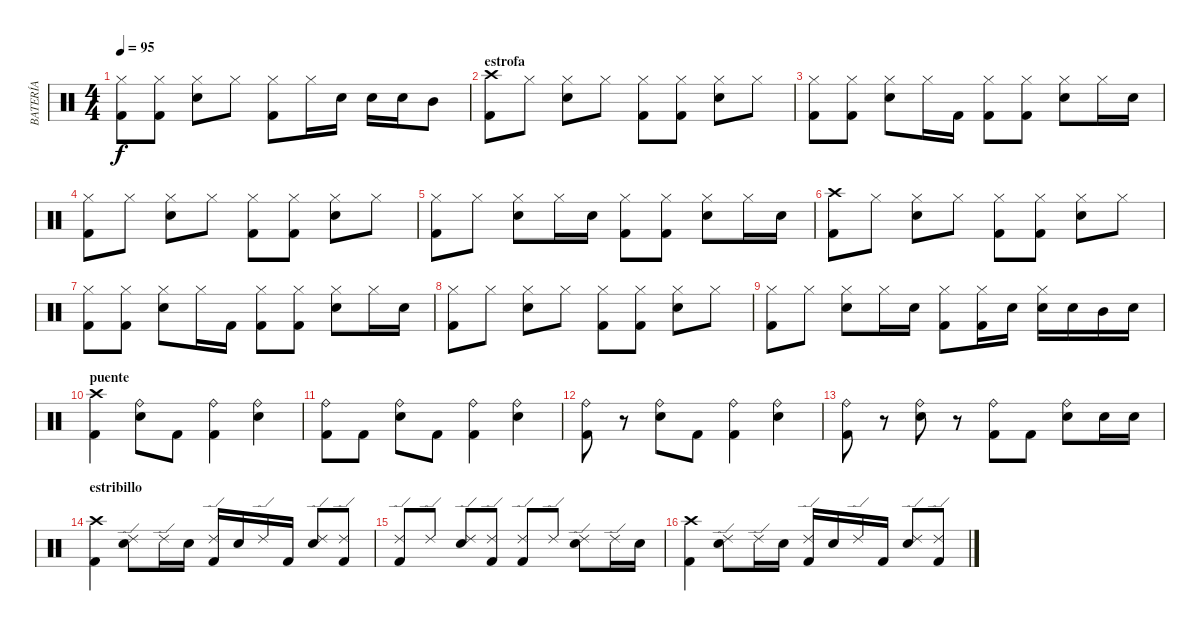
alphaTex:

\track ("BATERÍA" "BATERÍA") {instrument percussion}
\staff {score}
\articulation defaults
\ts (4 4)
\tempo 95
\clef neutral
\ks c
("Hi-Hat (closed)" "Kick (hit) 2").8{dy f} ("Hi-Hat (closed)" "Kick (hit) 2").8 ("Hi-Hat (closed)" "Electric Snare (hit)").8 "Hi-Hat (closed)".8 ("Hi-Hat (closed)" "Kick (hit) 2").8 "Hi-Hat (closed)".16 "Electric Snare (hit)".16 "Electric Snare (hit)".16 "Electric Snare (hit)".16 "Mid Tom (hit)".8 |
\section ("" "estrofa")
("Crash high (hit)" "Kick (hit) 2").8 "Hi-Hat (closed)".8 ("Hi-Hat (closed)" "Electric Snare (hit)").8 "Hi-Hat (closed)".8 ("Hi-Hat (closed)" "Kick (hit) 2").8 ("Hi-Hat (closed)" "Kick (hit) 2").8 ("Hi-Hat (closed)" "Electric Snare (hit)").8 "Hi-Hat (closed)".8 |
("Hi-Hat (closed)" "Kick (hit) 2").8 ("Hi-Hat (closed)" "Kick (hit) 2").8 ("Hi-Hat (closed)" "Electric Snare (hit)").8 "Hi-Hat (closed)".16 "Kick (hit) 2".16 ("Hi-Hat (closed)" "Kick (hit) 2").8 ("Hi-Hat (closed)" "Kick (hit) 2").8 ("Hi-Hat (closed)" "Electric Snare (hit)").8 "Hi-Hat (closed)".16 "Electric Snare (hit)".16 |
("Hi-Hat (closed)" "Kick (hit) 2").8 "Hi-Hat (closed)".8 ("Hi-Hat (closed)" "Electric Snare (hit)").8 "Hi-Hat (closed)".8 ("Hi-Hat (closed)" "Kick (hit) 2").8 ("Hi-Hat (closed)" "Kick (hit) 2").8 ("Hi-Hat (closed)" "Electric Snare (hit)").8 "Hi-Hat (closed)".8 |
("Hi-Hat (closed)" "Kick (hit) 2").8 "Hi-Hat (closed)".8 ("Hi-Hat (closed)" "Electric Snare (hit)").8 "Hi-Hat (closed)".16 "Electric Snare (hit)".16 ("Hi-Hat (closed)" "Kick (hit) 2").8 ("Hi-Hat (closed)" "Kick (hit) 2").8 ("Hi-Hat (closed)" "Electric Snare (hit)").8 "Hi-Hat (closed)".16 "Electric Snare (hit)".16 |
("Crash high (hit)" "Kick (hit) 2").8 "Hi-Hat (closed)".8 ("Hi-Hat (closed)" "Electric Snare (hit)").8 "Hi-Hat (closed)".8 ("Hi-Hat (closed)" "Kick (hit) 2").8 ("Hi-Hat (closed)" "Kick (hit) 2").8 ("Hi-Hat (closed)" "Electric Snare (hit)").8 "Hi-Hat (closed)".8 |
("Hi-Hat (closed)" "Kick (hit) 2").8 ("Hi-Hat (closed)" "Kick (hit) 2").8 ("Hi-Hat (closed)" "Electric Snare (hit)").8 "Hi-Hat (closed)".16 "Kick (hit) 2".16 ("Hi-Hat (closed)" "Kick (hit) 2").8 ("Hi-Hat (closed)" "Kick (hit) 2").8 ("Hi-Hat (closed)" "Electric Snare (hit)").8 "Hi-Hat (closed)".16 "Electric Snare (hit)".16 |
("Hi-Hat (closed)" "Kick (hit) 2").8 "Hi-Hat (closed)".8 ("Hi-Hat (closed)" "Electric Snare (hit)").8 "Hi-Hat (closed)".8 ("Hi-Hat (closed)" "Kick (hit) 2").8 ("Hi-Hat (closed)" "Kick (hit) 2").8 ("Hi-Hat (closed)" "Electric Snare (hit)").8 "Hi-Hat (closed)".8 |
("Hi-Hat (closed)" "Kick (hit) 2").8 "Hi-Hat (closed)".8 ("Hi-Hat (closed)" "Electric Snare (hit)").8 "Hi-Hat (closed)".16 "Electric Snare (hit)".16 ("Hi-Hat (closed)" "Kick (hit) 2").8 ("Hi-Hat (closed)" "Kick (hit) 2").16 "Electric Snare (hit)".16 ("Hi-Hat (closed)" "Electric Snare (hit)").16 "Electric Snare (hit)".16 "Mid Tom (hit)".16 "Electric Snare (hit)".16 |
\section ("" "puente")
("Crash high (hit)" "Kick (hit) 2").4 ("Ride (bell)" "Electric Snare (hit)").8 "Kick (hit) 2".8 ("Ride (bell)" "Kick (hit) 2").4 ("Ride (bell)" "Electric Snare (hit)").4 |
("Ride (bell)" "Kick (hit) 2").8 "Kick (hit) 2".8 ("Ride (bell)" "Electric Snare (hit)").8 "Kick (hit) 2".8 ("Ride (bell)" "Kick (hit) 2").4 ("Ride (bell)" "Electric Snare (hit)").4 |
("Ride (bell)" "Kick (hit) 2").8 r.8 ("Ride (bell)" "Electric Snare (hit)").8 "Kick (hit) 2".8 ("Ride (bell)" "Kick (hit) 2").4 ("Ride (bell)" "Electric Snare (hit)").4 |
("Ride (bell)" "Kick (hit) 2").8 r.8 ("Ride (bell)" "Electric Snare (hit)").8 r.8 ("Ride (bell)" "Kick (hit) 2").8 "Kick (hit) 2".8 ("Ride (bell)" "Electric Snare (hit)").8 "Electric Snare (hit)".16 "Electric Snare (hit)".16 |
\section ("" "estribillo")
("Kick (hit) 2" "Crash high (hit)").4 ("Ride (edge) 2" "Electric Snare (hit)").8 "Ride (edge) 2".16 "Electric Snare (hit)".16 ("Ride (edge) 2" "Kick (hit) 2").16 "Electric Snare (hit)".16 "Ride (edge) 2".16 "Kick (hit) 2".16 ("Ride (edge) 2" "Electric Snare (hit)").8 ("Ride (edge) 2" "Kick (hit) 2").8 |
("Ride (edge) 2" "Kick (hit) 2").8 "Ride (edge) 2".8 ("Ride (edge) 2" "Electric Snare (hit)").8 ("Ride (edge) 2" "Kick (hit) 2").8 ("Ride (edge) 2" "Kick (hit) 2").8 "Ride (edge) 2".8 ("Ride (edge) 2" "Electric Snare (hit)").8 "Ride (edge) 2".16 "Electric Snare (hit)".16 |
("Kick (hit) 2" "Crash high (hit)").4 ("Ride (edge) 2" "Electric Snare (hit)").8 "Ride (edge) 2".16 "Electric Snare (hit)".16 ("Ride (edge) 2" "Kick (hit) 2").16 "Electric Snare (hit)".16 "Ride (edge) 2".16 "Kick (hit) 2".16 ("Ride (edge) 2" "Electric Snare (hit)").8 ("Ride (edge) 2" "Kick (hit) 2").8
